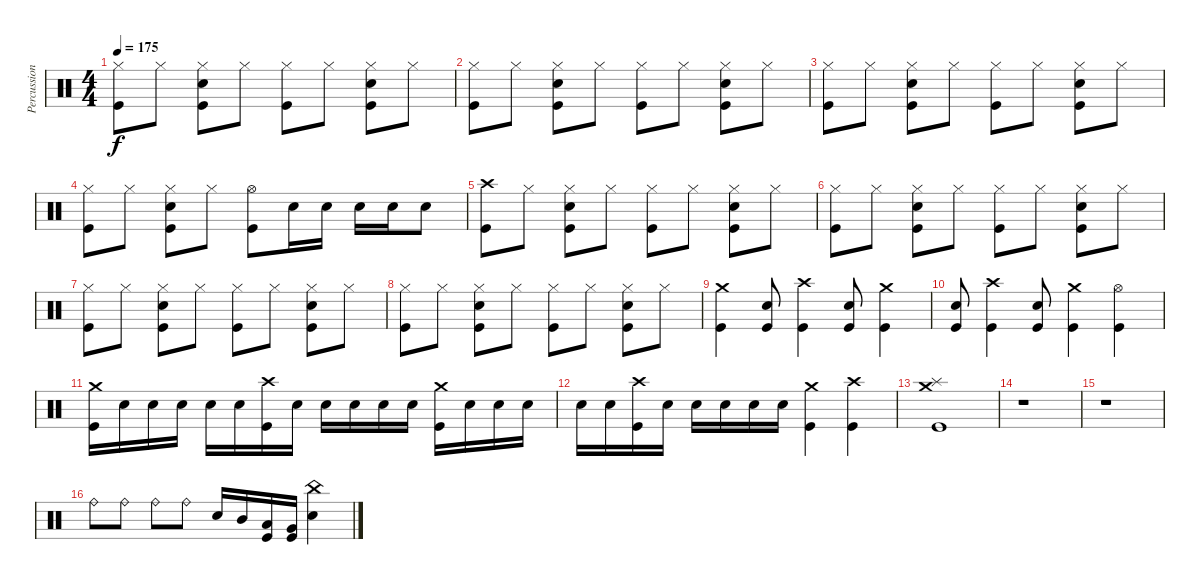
\track ("Percussion" "Percussion") {instrument percussion}
\staff {score}
\articulation defaults
\ts (4 4)
\tempo 175
\clef neutral
\ks c
("Hi-Hat (closed)" "Kick (hit)").8{dy f} "Hi-Hat (closed)".8 ("Hi-Hat (closed)" "Electric Snare (hit)" "Kick (hit)").8 "Hi-Hat (closed)".8 ("Hi-Hat (closed)" "Kick (hit)").8 "Hi-Hat (closed)".8 ("Hi-Hat (closed)" "Electric Snare (hit)" "Kick (hit)").8 "Hi-Hat (closed)".8 |
("Hi-Hat (closed)" "Kick (hit)").8 "Hi-Hat (closed)".8 ("Hi-Hat (closed)" "Electric Snare (hit)" "Kick (hit)").8 "Hi-Hat (closed)".8 ("Hi-Hat (closed)" "Kick (hit)").8 "Hi-Hat (closed)".8 ("Hi-Hat (closed)" "Electric Snare (hit)" "Kick (hit)").8 "Hi-Hat (closed)".8 |
("Hi-Hat (closed)" "Kick (hit)").8 "Hi-Hat (closed)".8 ("Hi-Hat (closed)" "Electric Snare (hit)" "Kick (hit)").8 "Hi-Hat (closed)".8 ("Hi-Hat (closed)" "Kick (hit)").8 "Hi-Hat (closed)".8 ("Hi-Hat (closed)" "Electric Snare (hit)" "Kick (hit)").8 "Hi-Hat (closed)".8 |
("Hi-Hat (closed)" "Kick (hit)").8 "Hi-Hat (closed)".8 ("Hi-Hat (closed)" "Electric Snare (hit)" "Kick (hit)").8 "Hi-Hat (closed)".8 ("Hi-Hat (open)" "Kick (hit)").8 "Electric Snare (hit)".16 "Electric Snare (hit)".16 "Electric Snare (hit)".16 "Electric Snare (hit)".16 "Electric Snare (hit)".8 |
("Crash high (hit)" "Kick (hit)").8 "Hi-Hat (closed)".8 ("Hi-Hat (closed)" "Electric Snare (hit)" "Kick (hit)").8 "Hi-Hat (closed)".8 ("Hi-Hat (closed)" "Kick (hit)").8 "Hi-Hat (closed)".8 ("Hi-Hat (closed)" "Electric Snare (hit)" "Kick (hit)").8 "Hi-Hat (closed)".8 |
("Hi-Hat (closed)" "Kick (hit)").8 "Hi-Hat (closed)".8 ("Hi-Hat (closed)" "Electric Snare (hit)" "Kick (hit)").8 "Hi-Hat (closed)".8 ("Hi-Hat (closed)" "Kick (hit)").8 "Hi-Hat (closed)".8 ("Hi-Hat (closed)" "Electric Snare (hit)" "Kick (hit)").8 "Hi-Hat (closed)".8 |
("Hi-Hat (closed)" "Kick (hit)").8 "Hi-Hat (closed)".8 ("Hi-Hat (closed)" "Electric Snare (hit)" "Kick (hit)").8 "Hi-Hat (closed)".8 ("Hi-Hat (closed)" "Kick (hit)").8 "Hi-Hat (closed)".8 ("Hi-Hat (closed)" "Electric Snare (hit)" "Kick (hit)").8 "Hi-Hat (closed)".8 |
("Hi-Hat (closed)" "Kick (hit)").8 "Hi-Hat (closed)".8 ("Hi-Hat (closed)" "Electric Snare (hit)" "Kick (hit)").8 "Hi-Hat (closed)".8 ("Hi-Hat (closed)" "Kick (hit)").8 "Hi-Hat (closed)".8 ("Hi-Hat (closed)" "Electric Snare (hit)" "Kick (hit)").8 "Hi-Hat (closed)".8 |
("Crash medium (hit)" "Kick (hit)").4 ("Electric Snare (hit)" "Kick (hit)").8 ("Crash high (hit)" "Kick (hit)").4 ("Electric Snare (hit)" "Kick (hit)").8 ("Crash medium (hit)" "Kick (hit)").4 |
("Electric Snare (hit)" "Kick (hit)").8 ("Crash high (hit)" "Kick (hit)").4 ("Electric Snare (hit)" "Kick (hit)").8 ("Crash medium (hit)" "Kick (hit)").4 ("Hi-Hat (open)" "Kick (hit)").4 |
("Crash medium (hit)" "Kick (hit)").16 "Electric Snare (hit)".16 "Electric Snare (hit)".16 "Electric Snare (hit)".16 "Electric Snare (hit)".16 "Electric Snare (hit)".16 ("Crash high (hit)" "Kick (hit)").16 "Electric Snare (hit)".16 "Electric Snare (hit)".16 "Electric Snare (hit)".16 "Electric Snare (hit)".16 "Electric Snare (hit)".16 ("Crash medium (hit)" "Kick (hit)").16 "Electric Snare (hit)".16 "Electric Snare (hit)".16 "Electric Snare (hit)".16 |
"Electric Snare (hit)".16 "Electric Snare (hit)".16 ("Crash high (hit)" "Kick (hit)").16 "Electric Snare (hit)".16 "Electric Snare (hit)".16 "Electric Snare (hit)".16 "Electric Snare (hit)".16 "Electric Snare (hit)".16 ("Crash medium (hit)" "Kick (hit)").4 ("Crash high (hit)" "Kick (hit)").4 |
("Crash medium (hit)" "Splash (hit)" "Kick (hit)").1 |
r.1 |
r.1 |
"Ride (bell)".8 "Ride (bell)".8 "Ride (bell)".8 "Ride (bell)".8 "Electric Snare (hit)".16 "Mid Tom (hit)".16 ("Low Tom (hit)" "Kick (hit)").16 ("Very Low Tom (hit)" "Kick (hit)").16 ("China (hit)" "Electric Snare (hit)").4
